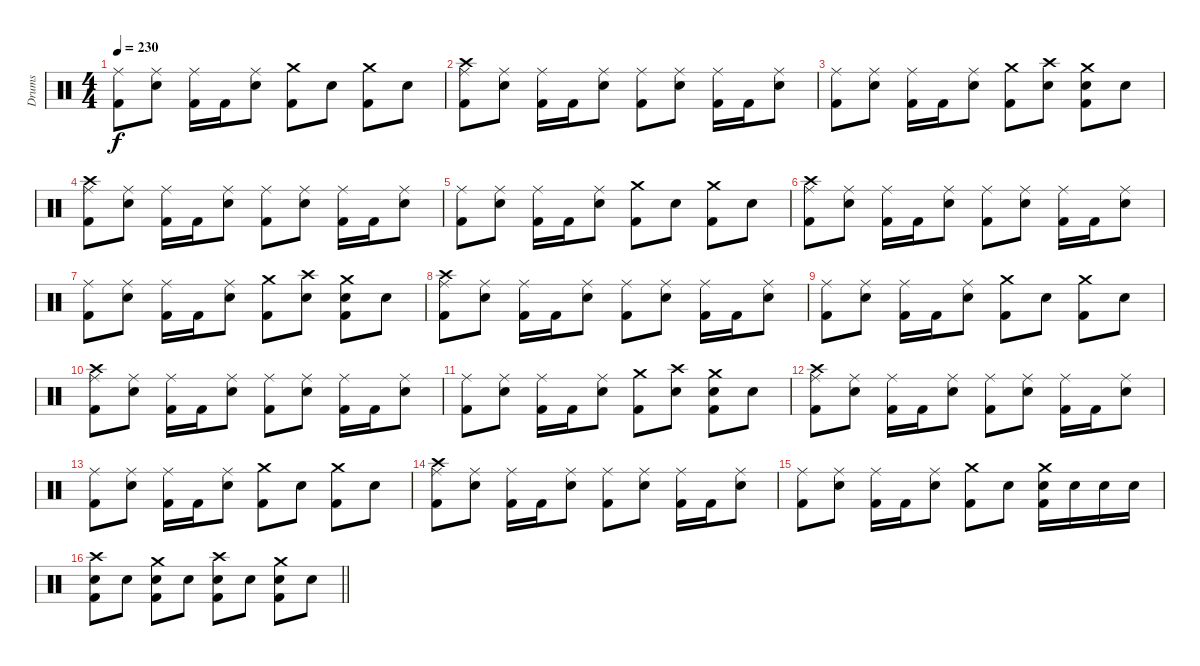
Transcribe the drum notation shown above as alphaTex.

\track ("Drums" "Drums") {instrument percussion}
\staff {score}
\articulation defaults
\ts (4 4)
\tempo 230
\clef neutral
\ks c
("Ride (middle)" "Kick (hit) 2").8{dy f} ("Ride (middle)" "Snare (hit) 2").8 ("Ride (middle)" "Kick (hit) 2").16 "Kick (hit) 2".16 ("Ride (middle)" "Snare (hit) 2").8 ("Crash medium (hit)" "Kick (hit) 2").8 "Snare (hit) 2".8 ("Crash medium (hit)" "Kick (hit) 2").8 "Snare (hit) 2".8 |
("Crash high (hit)" "Ride (middle)" "Kick (hit) 2").8 ("Ride (middle)" "Snare (hit) 2").8 ("Ride (middle)" "Kick (hit) 2").16 "Kick (hit) 2".16 ("Ride (middle)" "Snare (hit) 2").8 ("Ride (middle)" "Kick (hit) 2").8 ("Ride (middle)" "Snare (hit) 2").8 ("Ride (middle)" "Kick (hit) 2").16 "Kick (hit) 2".16 ("Ride (middle)" "Snare (hit) 2").8 |
("Ride (middle)" "Kick (hit) 2").8 ("Ride (middle)" "Snare (hit) 2").8 ("Ride (middle)" "Kick (hit) 2").16 "Kick (hit) 2".16 ("Ride (middle)" "Snare (hit) 2").8 ("Crash medium (hit)" "Kick (hit) 2").8 ("Crash high (hit)" "Snare (hit) 2").8 ("Crash medium (hit)" "Snare (hit) 2" "Kick (hit) 2").8 "Snare (hit) 2".8 |
("Crash high (hit)" "Ride (middle)" "Kick (hit) 2").8 ("Ride (middle)" "Snare (hit) 2").8 ("Ride (middle)" "Kick (hit) 2").16 "Kick (hit) 2".16 ("Ride (middle)" "Snare (hit) 2").8 ("Ride (middle)" "Kick (hit) 2").8 ("Ride (middle)" "Snare (hit) 2").8 ("Ride (middle)" "Kick (hit) 2").16 "Kick (hit) 2".16 ("Ride (middle)" "Snare (hit) 2").8 |
("Ride (middle)" "Kick (hit) 2").8 ("Ride (middle)" "Snare (hit) 2").8 ("Ride (middle)" "Kick (hit) 2").16 "Kick (hit) 2".16 ("Ride (middle)" "Snare (hit) 2").8 ("Crash medium (hit)" "Kick (hit) 2").8 "Snare (hit) 2".8 ("Crash medium (hit)" "Kick (hit) 2").8 "Snare (hit) 2".8 |
("Crash high (hit)" "Ride (middle)" "Kick (hit) 2").8 ("Ride (middle)" "Snare (hit) 2").8 ("Ride (middle)" "Kick (hit) 2").16 "Kick (hit) 2".16 ("Ride (middle)" "Snare (hit) 2").8 ("Ride (middle)" "Kick (hit) 2").8 ("Ride (middle)" "Snare (hit) 2").8 ("Ride (middle)" "Kick (hit) 2").16 "Kick (hit) 2".16 ("Ride (middle)" "Snare (hit) 2").8 |
("Ride (middle)" "Kick (hit) 2").8 ("Ride (middle)" "Snare (hit) 2").8 ("Ride (middle)" "Kick (hit) 2").16 "Kick (hit) 2".16 ("Ride (middle)" "Snare (hit) 2").8 ("Crash medium (hit)" "Kick (hit) 2").8 ("Crash high (hit)" "Snare (hit) 2").8 ("Crash medium (hit)" "Snare (hit) 2" "Kick (hit) 2").8 "Snare (hit) 2".8 |
("Crash high (hit)" "Ride (middle)" "Kick (hit) 2").8 ("Ride (middle)" "Snare (hit) 2").8 ("Ride (middle)" "Kick (hit) 2").16 "Kick (hit) 2".16 ("Ride (middle)" "Snare (hit) 2").8 ("Ride (middle)" "Kick (hit) 2").8 ("Ride (middle)" "Snare (hit) 2").8 ("Ride (middle)" "Kick (hit) 2").16 "Kick (hit) 2".16 ("Ride (middle)" "Snare (hit) 2").8 |
("Ride (middle)" "Kick (hit) 2").8 ("Ride (middle)" "Snare (hit) 2").8 ("Ride (middle)" "Kick (hit) 2").16 "Kick (hit) 2".16 ("Ride (middle)" "Snare (hit) 2").8 ("Crash medium (hit)" "Kick (hit) 2").8 "Snare (hit) 2".8 ("Crash medium (hit)" "Kick (hit) 2").8 "Snare (hit) 2".8 |
("Crash high (hit)" "Ride (middle)" "Kick (hit) 2").8 ("Ride (middle)" "Snare (hit) 2").8 ("Ride (middle)" "Kick (hit) 2").16 "Kick (hit) 2".16 ("Ride (middle)" "Snare (hit) 2").8 ("Ride (middle)" "Kick (hit) 2").8 ("Ride (middle)" "Snare (hit) 2").8 ("Ride (middle)" "Kick (hit) 2").16 "Kick (hit) 2".16 ("Ride (middle)" "Snare (hit) 2").8 |
("Ride (middle)" "Kick (hit) 2").8 ("Ride (middle)" "Snare (hit) 2").8 ("Ride (middle)" "Kick (hit) 2").16 "Kick (hit) 2".16 ("Ride (middle)" "Snare (hit) 2").8 ("Crash medium (hit)" "Kick (hit) 2").8 ("Crash high (hit)" "Snare (hit) 2").8 ("Crash medium (hit)" "Snare (hit) 2" "Kick (hit) 2").8 "Snare (hit) 2".8 |
("Crash high (hit)" "Ride (middle)" "Kick (hit) 2").8 ("Ride (middle)" "Snare (hit) 2").8 ("Ride (middle)" "Kick (hit) 2").16 "Kick (hit) 2".16 ("Ride (middle)" "Snare (hit) 2").8 ("Ride (middle)" "Kick (hit) 2").8 ("Ride (middle)" "Snare (hit) 2").8 ("Ride (middle)" "Kick (hit) 2").16 "Kick (hit) 2".16 ("Ride (middle)" "Snare (hit) 2").8 |
("Ride (middle)" "Kick (hit) 2").8 ("Ride (middle)" "Snare (hit) 2").8 ("Ride (middle)" "Kick (hit) 2").16 "Kick (hit) 2".16 ("Ride (middle)" "Snare (hit) 2").8 ("Crash medium (hit)" "Kick (hit) 2").8 "Snare (hit) 2".8 ("Crash medium (hit)" "Kick (hit) 2").8 "Snare (hit) 2".8 |
("Crash high (hit)" "Ride (middle)" "Kick (hit) 2").8 ("Ride (middle)" "Snare (hit) 2").8 ("Ride (middle)" "Kick (hit) 2").16 "Kick (hit) 2".16 ("Ride (middle)" "Snare (hit) 2").8 ("Ride (middle)" "Kick (hit) 2").8 ("Ride (middle)" "Snare (hit) 2").8 ("Ride (middle)" "Kick (hit) 2").16 "Kick (hit) 2".16 ("Ride (middle)" "Snare (hit) 2").8 |
("Ride (middle)" "Kick (hit) 2").8 ("Ride (middle)" "Snare (hit) 2").8 ("Ride (middle)" "Kick (hit) 2").16 "Kick (hit) 2".16 ("Ride (middle)" "Snare (hit) 2").8 ("Crash medium (hit)" "Kick (hit) 2").8 "Snare (hit) 2".8 ("Crash medium (hit)" "Snare (hit) 2" "Kick (hit) 2").16 "Snare (hit) 2".16 "Snare (hit) 2".16 "Snare (hit) 2".16 |
\barLineRight lightlight
("Crash high (hit)" "Snare (hit) 2" "Kick (hit) 2").8 "Snare (hit) 2".8 ("Crash medium (hit)" "Snare (hit) 2" "Kick (hit) 2").8 "Snare (hit) 2".8 ("Crash high (hit)" "Snare (hit) 2" "Kick (hit) 2").8 "Snare (hit) 2".8 ("Crash medium (hit)" "Snare (hit) 2" "Kick (hit) 2").8 "Snare (hit) 2".8
